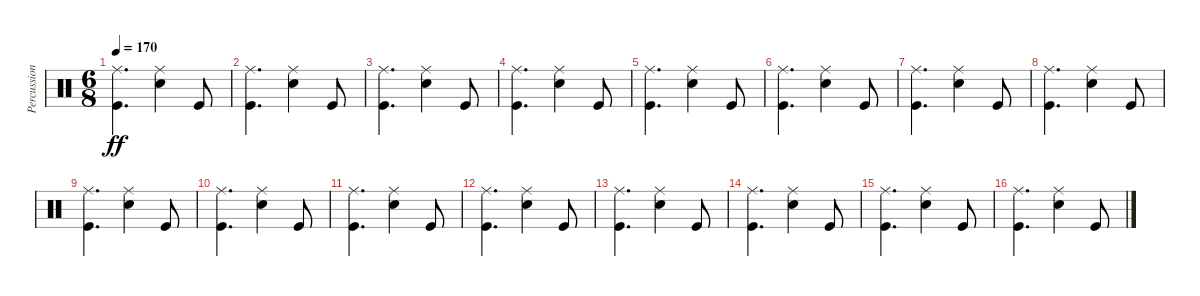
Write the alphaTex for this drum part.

\track ("Percussion" "Percussion") {instrument percussion}
\staff {score}
\articulation defaults
\ts (6 8)
\tempo 170
\clef neutral
\ks c
("Ride (middle)" "Kick (hit)").4{d dy ff} ("Ride (middle)" "Snare (hit) 2").4 "Kick (hit)".8 |
("Ride (middle)" "Kick (hit)").4{d} ("Ride (middle)" "Snare (hit) 2").4 "Kick (hit)".8 |
("Ride (middle)" "Kick (hit)").4{d} ("Ride (middle)" "Snare (hit) 2").4 "Kick (hit)".8 |
("Ride (middle)" "Kick (hit)").4{d} ("Ride (middle)" "Snare (hit) 2").4 "Kick (hit)".8 |
("Ride (middle)" "Kick (hit)").4{d} ("Ride (middle)" "Snare (hit) 2").4 "Kick (hit)".8 |
("Ride (middle)" "Kick (hit)").4{d} ("Ride (middle)" "Snare (hit) 2").4 "Kick (hit)".8 |
("Ride (middle)" "Kick (hit)").4{d} ("Ride (middle)" "Snare (hit) 2").4 "Kick (hit)".8 |
("Ride (middle)" "Kick (hit)").4{d} ("Ride (middle)" "Snare (hit) 2").4 "Kick (hit)".8 |
("Ride (middle)" "Kick (hit)").4{d} ("Ride (middle)" "Snare (hit) 2").4 "Kick (hit)".8 |
("Ride (middle)" "Kick (hit)").4{d} ("Ride (middle)" "Snare (hit) 2").4 "Kick (hit)".8 |
("Ride (middle)" "Kick (hit)").4{d} ("Ride (middle)" "Snare (hit) 2").4 "Kick (hit)".8 |
("Ride (middle)" "Kick (hit)").4{d} ("Ride (middle)" "Snare (hit) 2").4 "Kick (hit)".8 |
("Ride (middle)" "Kick (hit)").4{d} ("Ride (middle)" "Snare (hit) 2").4 "Kick (hit)".8 |
("Ride (middle)" "Kick (hit)").4{d} ("Ride (middle)" "Snare (hit) 2").4 "Kick (hit)".8 |
("Ride (middle)" "Kick (hit)").4{d} ("Ride (middle)" "Snare (hit) 2").4 "Kick (hit)".8 |
("Ride (middle)" "Kick (hit)").4{d} ("Ride (middle)" "Snare (hit) 2").4 "Kick (hit)".8
